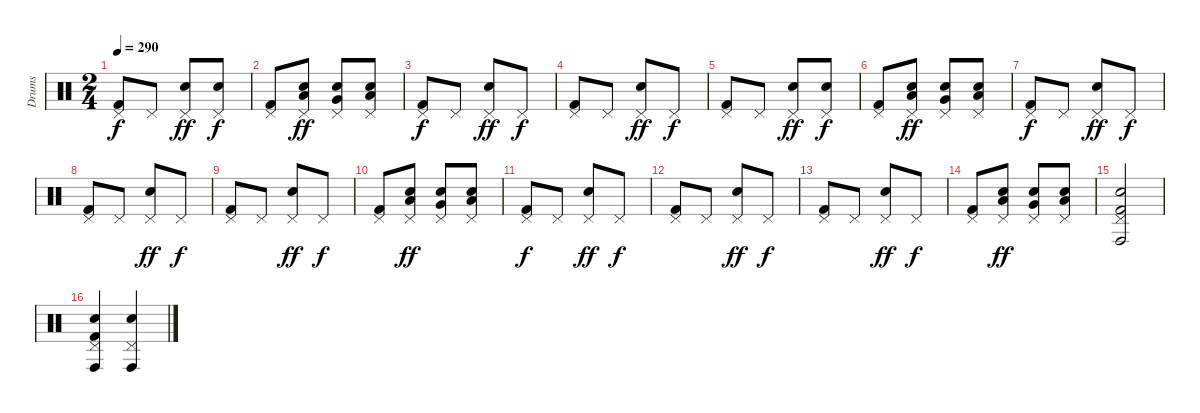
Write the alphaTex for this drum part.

\track ("Drums" "Drums") {instrument percussion}
\staff {score}
\articulation defaults
\ts (2 4)
\tempo 290
\clef neutral
\ks c
("Pedal Hi-Hat (hit)" "Kick (hit) 2").8{dy f} "Pedal Hi-Hat (hit)".8 ("Pedal Hi-Hat (hit)" "Electric Snare (hit)").8{dy ff} ("Pedal Hi-Hat (hit)" "Electric Snare (hit)").8{dy f} |
("Pedal Hi-Hat (hit)" "Kick (hit) 2").8 ("Pedal Hi-Hat (hit)" "Low Floor Tom (hit)" "Electric Snare (hit)").8{dy ff} ("Pedal Hi-Hat (hit)" "Very Low Tom (hit)" "Electric Snare (hit)").8 ("Pedal Hi-Hat (hit)" "Low Tom (hit)" "Electric Snare (hit)").8 |
("Pedal Hi-Hat (hit)" "Kick (hit) 2").8{dy f} "Pedal Hi-Hat (hit)".8 ("Pedal Hi-Hat (hit)" "Electric Snare (hit)").8{dy ff} "Pedal Hi-Hat (hit)".8{dy f} |
("Pedal Hi-Hat (hit)" "Kick (hit) 2").8 "Pedal Hi-Hat (hit)".8 ("Pedal Hi-Hat (hit)" "Electric Snare (hit)").8{dy ff} "Pedal Hi-Hat (hit)".8{dy f} |
("Pedal Hi-Hat (hit)" "Kick (hit) 2").8 "Pedal Hi-Hat (hit)".8 ("Pedal Hi-Hat (hit)" "Electric Snare (hit)").8{dy ff} ("Pedal Hi-Hat (hit)" "Electric Snare (hit)").8{dy f} |
("Pedal Hi-Hat (hit)" "Kick (hit) 2").8 ("Pedal Hi-Hat (hit)" "Low Tom (hit)" "Electric Snare (hit)").8{dy ff} ("Pedal Hi-Hat (hit)" "Very Low Tom (hit)" "Electric Snare (hit)").8 ("Pedal Hi-Hat (hit)" "Low Floor Tom (hit)" "Electric Snare (hit)").8 |
("Pedal Hi-Hat (hit)" "Kick (hit) 2").8{dy f} "Pedal Hi-Hat (hit)".8 ("Pedal Hi-Hat (hit)" "Electric Snare (hit)").8{dy ff} "Pedal Hi-Hat (hit)".8{dy f} |
("Pedal Hi-Hat (hit)" "Kick (hit) 2").8 "Pedal Hi-Hat (hit)".8 ("Pedal Hi-Hat (hit)" "Electric Snare (hit)").8{dy ff} "Pedal Hi-Hat (hit)".8{dy f} |
("Pedal Hi-Hat (hit)" "Kick (hit) 2").8 "Pedal Hi-Hat (hit)".8 ("Pedal Hi-Hat (hit)" "Electric Snare (hit)").8{dy ff} "Pedal Hi-Hat (hit)".8{dy f} |
("Pedal Hi-Hat (hit)" "Kick (hit) 2").8 ("Pedal Hi-Hat (hit)" "Low Floor Tom (hit)" "Electric Snare (hit)").8{dy ff} ("Pedal Hi-Hat (hit)" "Very Low Tom (hit)" "Electric Snare (hit)").8 ("Pedal Hi-Hat (hit)" "Low Tom (hit)" "Electric Snare (hit)").8 |
("Pedal Hi-Hat (hit)" "Kick (hit) 2").8{dy f} "Pedal Hi-Hat (hit)".8 ("Pedal Hi-Hat (hit)" "Electric Snare (hit)").8{dy ff} "Pedal Hi-Hat (hit)".8{dy f} |
("Pedal Hi-Hat (hit)" "Kick (hit) 2").8 "Pedal Hi-Hat (hit)".8 ("Pedal Hi-Hat (hit)" "Electric Snare (hit)").8{dy ff} "Pedal Hi-Hat (hit)".8{dy f} |
("Pedal Hi-Hat (hit)" "Kick (hit) 2").8 "Pedal Hi-Hat (hit)".8 ("Pedal Hi-Hat (hit)" "Electric Snare (hit)").8{dy ff} "Pedal Hi-Hat (hit)".8{dy f} |
("Pedal Hi-Hat (hit)" "Kick (hit) 2").8 ("Pedal Hi-Hat (hit)" "Low Tom (hit)" "Electric Snare (hit)").8{dy ff} ("Pedal Hi-Hat (hit)" "Very Low Tom (hit)" "Electric Snare (hit)").8 ("Pedal Hi-Hat (hit)" "Low Floor Tom (hit)" "Electric Snare (hit)").8 |
("Pedal Hi-Hat (hit)" "Conga high (hit)" "Electric Snare (hit)" "Kick (hit) 2").2 |
("Pedal Hi-Hat (hit)" "Conga high (hit)" "Electric Snare (hit)" "Kick (hit) 2").4 ("Pedal Hi-Hat (hit)" "Conga high (hit)" "Electric Snare (hit)").4
